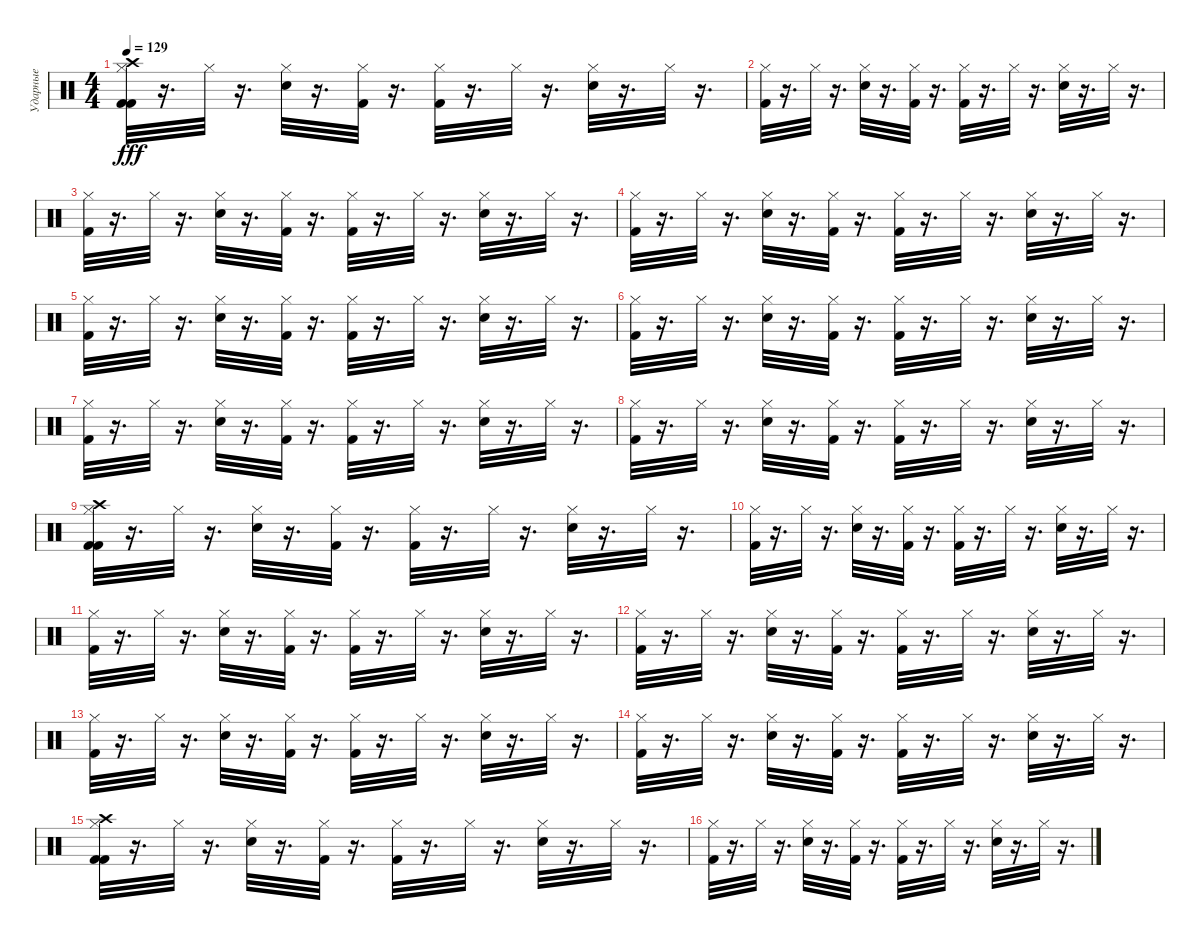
\track ("Ударные" "Ударные") {instrument percussion}
\staff {score}
\articulation defaults
\ts (4 4)
\tempo 129
\clef neutral
\ks c
("Kick (hit) 2" "Crash high (hit)" "Kick (hit) 2" "Hi-Hat (closed)").32{dy fff balance 10} r.16{d} "Hi-Hat (closed)".32{balance 10} r.16{d} ("Electric Snare (hit)" "Hi-Hat (closed)").32{balance 10} r.16{d} ("Kick (hit) 2" "Hi-Hat (closed)").32{balance 10} r.16{d} ("Kick (hit) 2" "Hi-Hat (closed)").32{balance 10} r.16{d} "Hi-Hat (closed)".32{balance 10} r.16{d} ("Electric Snare (hit)" "Hi-Hat (closed)").32{balance 10} r.16{d} "Hi-Hat (closed)".32{balance 10} r.16{d} |
("Kick (hit) 2" "Hi-Hat (closed)").32{balance 10} r.16{d} "Hi-Hat (closed)".32{balance 10} r.16{d} ("Electric Snare (hit)" "Hi-Hat (closed)").32{balance 10} r.16{d} ("Kick (hit) 2" "Hi-Hat (closed)").32{balance 10} r.16{d} ("Kick (hit) 2" "Hi-Hat (closed)").32{balance 10} r.16{d} "Hi-Hat (closed)".32{balance 10} r.16{d} ("Electric Snare (hit)" "Hi-Hat (closed)").32{balance 10} r.16{d} "Hi-Hat (closed)".32{balance 10} r.16{d} |
("Kick (hit) 2" "Hi-Hat (closed)").32{balance 10} r.16{d} "Hi-Hat (closed)".32{balance 10} r.16{d} ("Electric Snare (hit)" "Hi-Hat (closed)").32{balance 10} r.16{d} ("Kick (hit) 2" "Hi-Hat (closed)").32{balance 10} r.16{d} ("Kick (hit) 2" "Hi-Hat (closed)").32{balance 10} r.16{d} "Hi-Hat (closed)".32{balance 10} r.16{d} ("Electric Snare (hit)" "Hi-Hat (closed)").32{balance 10} r.16{d} "Hi-Hat (closed)".32{balance 10} r.16{d} |
("Kick (hit) 2" "Hi-Hat (closed)").32{balance 10} r.16{d} "Hi-Hat (closed)".32{balance 10} r.16{d} ("Electric Snare (hit)" "Hi-Hat (closed)").32{balance 10} r.16{d} ("Kick (hit) 2" "Hi-Hat (closed)").32{balance 10} r.16{d} ("Kick (hit) 2" "Hi-Hat (closed)").32{balance 10} r.16{d} "Hi-Hat (closed)".32{balance 10} r.16{d} ("Electric Snare (hit)" "Hi-Hat (closed)").32{balance 10} r.16{d} "Hi-Hat (closed)".32{balance 10} r.16{d} |
("Kick (hit) 2" "Hi-Hat (closed)").32{balance 10} r.16{d} "Hi-Hat (closed)".32{balance 10} r.16{d} ("Electric Snare (hit)" "Hi-Hat (closed)").32{balance 10} r.16{d} ("Kick (hit) 2" "Hi-Hat (closed)").32{balance 10} r.16{d} ("Kick (hit) 2" "Hi-Hat (closed)").32{balance 10} r.16{d} "Hi-Hat (closed)".32{balance 10} r.16{d} ("Electric Snare (hit)" "Hi-Hat (closed)").32{balance 10} r.16{d} "Hi-Hat (closed)".32{balance 10} r.16{d} |
("Kick (hit) 2" "Hi-Hat (closed)").32{balance 10} r.16{d} "Hi-Hat (closed)".32{balance 10} r.16{d} ("Electric Snare (hit)" "Hi-Hat (closed)").32{balance 10} r.16{d} ("Kick (hit) 2" "Hi-Hat (closed)").32{balance 10} r.16{d} ("Kick (hit) 2" "Hi-Hat (closed)").32{balance 10} r.16{d} "Hi-Hat (closed)".32{balance 10} r.16{d} ("Electric Snare (hit)" "Hi-Hat (closed)").32{balance 10} r.16{d} "Hi-Hat (closed)".32{balance 10} r.16{d} |
("Kick (hit) 2" "Hi-Hat (closed)").32{balance 10} r.16{d} "Hi-Hat (closed)".32{balance 10} r.16{d} ("Electric Snare (hit)" "Hi-Hat (closed)").32{balance 10} r.16{d} ("Kick (hit) 2" "Hi-Hat (closed)").32{balance 10} r.16{d} ("Kick (hit) 2" "Hi-Hat (closed)").32{balance 10} r.16{d} "Hi-Hat (closed)".32{balance 10} r.16{d} ("Electric Snare (hit)" "Hi-Hat (closed)").32{balance 10} r.16{d} "Hi-Hat (closed)".32{balance 10} r.16{d} |
("Kick (hit) 2" "Hi-Hat (closed)").32{balance 10} r.16{d} "Hi-Hat (closed)".32{balance 10} r.16{d} ("Electric Snare (hit)" "Hi-Hat (closed)").32{balance 10} r.16{d} ("Kick (hit) 2" "Hi-Hat (closed)").32{balance 10} r.16{d} ("Kick (hit) 2" "Hi-Hat (closed)").32{balance 10} r.16{d} "Hi-Hat (closed)".32{balance 10} r.16{d} ("Electric Snare (hit)" "Hi-Hat (closed)").32{balance 10} r.16{d} "Hi-Hat (closed)".32{balance 10} r.16{d} |
("Kick (hit) 2" "Crash high (hit)" "Kick (hit) 2" "Hi-Hat (closed)").32{balance 10} r.16{d} "Hi-Hat (closed)".32{balance 10} r.16{d} ("Electric Snare (hit)" "Hi-Hat (closed)").32{balance 10} r.16{d} ("Kick (hit) 2" "Hi-Hat (closed)").32{balance 10} r.16{d} ("Kick (hit) 2" "Hi-Hat (closed)").32{balance 10} r.16{d} "Hi-Hat (closed)".32{balance 10} r.16{d} ("Electric Snare (hit)" "Hi-Hat (closed)").32{balance 10} r.16{d} "Hi-Hat (closed)".32{balance 10} r.16{d} |
("Kick (hit) 2" "Hi-Hat (closed)").32{balance 10} r.16{d} "Hi-Hat (closed)".32{balance 10} r.16{d} ("Electric Snare (hit)" "Hi-Hat (closed)").32{balance 10} r.16{d} ("Kick (hit) 2" "Hi-Hat (closed)").32{balance 10} r.16{d} ("Kick (hit) 2" "Hi-Hat (closed)").32{balance 10} r.16{d} "Hi-Hat (closed)".32{balance 10} r.16{d} ("Electric Snare (hit)" "Hi-Hat (closed)").32{balance 10} r.16{d} "Hi-Hat (closed)".32{balance 10} r.16{d} |
("Kick (hit) 2" "Hi-Hat (closed)").32{balance 10} r.16{d} "Hi-Hat (closed)".32{balance 10} r.16{d} ("Electric Snare (hit)" "Hi-Hat (closed)").32{balance 10} r.16{d} ("Kick (hit) 2" "Hi-Hat (closed)").32{balance 10} r.16{d} ("Kick (hit) 2" "Hi-Hat (closed)").32{balance 10} r.16{d} "Hi-Hat (closed)".32{balance 10} r.16{d} ("Electric Snare (hit)" "Hi-Hat (closed)").32{balance 10} r.16{d} "Hi-Hat (closed)".32{balance 10} r.16{d} |
("Kick (hit) 2" "Hi-Hat (closed)").32{balance 10} r.16{d} "Hi-Hat (closed)".32{balance 10} r.16{d} ("Electric Snare (hit)" "Hi-Hat (closed)").32{balance 10} r.16{d} ("Kick (hit) 2" "Hi-Hat (closed)").32{balance 10} r.16{d} ("Kick (hit) 2" "Hi-Hat (closed)").32{balance 10} r.16{d} "Hi-Hat (closed)".32{balance 10} r.16{d} ("Electric Snare (hit)" "Hi-Hat (closed)").32{balance 10} r.16{d} "Hi-Hat (closed)".32{balance 10} r.16{d} |
("Kick (hit) 2" "Hi-Hat (closed)").32{balance 10} r.16{d} "Hi-Hat (closed)".32{balance 10} r.16{d} ("Electric Snare (hit)" "Hi-Hat (closed)").32{balance 10} r.16{d} ("Kick (hit) 2" "Hi-Hat (closed)").32{balance 10} r.16{d} ("Kick (hit) 2" "Hi-Hat (closed)").32{balance 10} r.16{d} "Hi-Hat (closed)".32{balance 10} r.16{d} ("Electric Snare (hit)" "Hi-Hat (closed)").32{balance 10} r.16{d} "Hi-Hat (closed)".32{balance 10} r.16{d} |
("Kick (hit) 2" "Hi-Hat (closed)").32{balance 10} r.16{d} "Hi-Hat (closed)".32{balance 10} r.16{d} ("Electric Snare (hit)" "Hi-Hat (closed)").32{balance 10} r.16{d} ("Kick (hit) 2" "Hi-Hat (closed)").32{balance 10} r.16{d} ("Kick (hit) 2" "Hi-Hat (closed)").32{balance 10} r.16{d} "Hi-Hat (closed)".32{balance 10} r.16{d} ("Electric Snare (hit)" "Hi-Hat (closed)").32{balance 10} r.16{d} "Hi-Hat (closed)".32{balance 10} r.16{d} |
("Kick (hit) 2" "Crash high (hit)" "Kick (hit) 2" "Hi-Hat (closed)").32{balance 10} r.16{d} "Hi-Hat (closed)".32{balance 10} r.16{d} ("Electric Snare (hit)" "Hi-Hat (closed)").32{balance 10} r.16{d} ("Kick (hit) 2" "Hi-Hat (closed)").32{balance 10} r.16{d} ("Kick (hit) 2" "Hi-Hat (closed)").32{balance 10} r.16{d} "Hi-Hat (closed)".32{balance 10} r.16{d} ("Electric Snare (hit)" "Hi-Hat (closed)").32{balance 10} r.16{d} "Hi-Hat (closed)".32{balance 10} r.16{d} |
("Kick (hit) 2" "Hi-Hat (closed)").32{balance 10} r.16{d} "Hi-Hat (closed)".32{balance 10} r.16{d} ("Electric Snare (hit)" "Hi-Hat (closed)").32{balance 10} r.16{d} ("Kick (hit) 2" "Hi-Hat (closed)").32{balance 10} r.16{d} ("Kick (hit) 2" "Hi-Hat (closed)").32{balance 10} r.16{d} "Hi-Hat (closed)".32{balance 10} r.16{d} ("Electric Snare (hit)" "Hi-Hat (closed)").32{balance 10} r.16{d} "Hi-Hat (closed)".32{balance 10} r.16{d}
